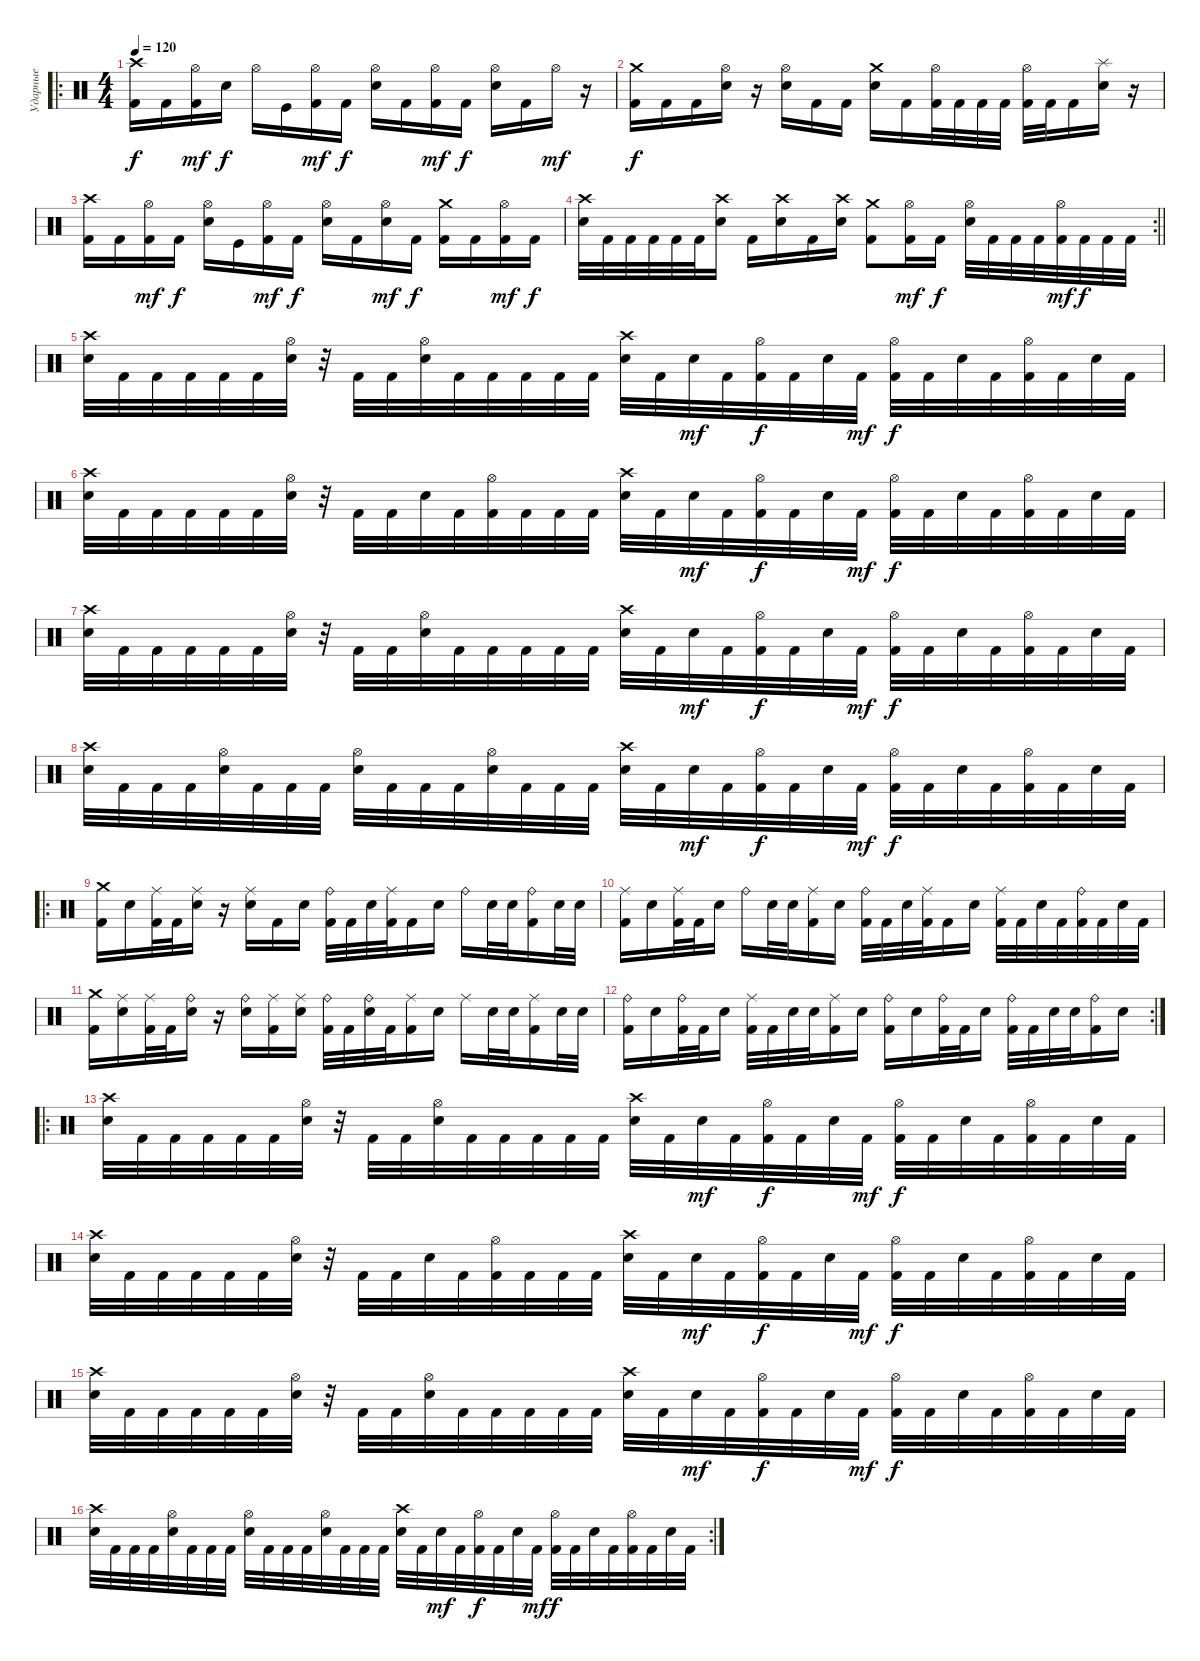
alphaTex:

\track ("Ударные" "Ударные") {instrument percussion}
\staff {score}
\articulation defaults
\ro
\ts (4 4)
\tempo 120
\clef neutral
\ks c
("Crash high (hit)" "Kick (hit) 2").16{dy f} "Kick (hit) 2".16 ("Hi-Hat (open)" "Kick (hit) 2").16{dy mf} "Electric Snare (hit)".16{dy f} "Hi-Hat (open)".16 "Kick (hit)".16 ("Hi-Hat (open)" "Kick (hit) 2").16{dy mf} "Kick (hit) 2".16{dy f} ("Hi-Hat (open)" "Electric Snare (hit)").16 "Kick (hit) 2".16 ("Hi-Hat (open)" "Kick (hit) 2").16{dy mf} "Kick (hit) 2".16{dy f} ("Hi-Hat (open)" "Electric Snare (hit)").16 "Kick (hit) 2".16 "Hi-Hat (open)".16{dy mf} r.16 |
("Crash medium (hit)" "Kick (hit) 2").16{dy f} "Kick (hit) 2".16 "Kick (hit) 2".16 ("Hi-Hat (open)" "Electric Snare (hit)").16 r.16 ("Hi-Hat (open)" "Electric Snare (hit)").16 "Kick (hit) 2".16 "Kick (hit) 2".16 ("Crash medium (hit)" "Electric Snare (hit)").16 "Kick (hit) 2".16 ("Hi-Hat (open)" "Kick (hit) 2").32 "Kick (hit) 2".32 "Kick (hit) 2".32 "Kick (hit) 2".32 ("Hi-Hat (open)" "Kick (hit) 2").32 "Kick (hit) 2".32 "Kick (hit) 2".16 ("Splash (hit)" "Electric Snare (hit)").16 r.16 |
("Crash high (hit)" "Kick (hit) 2").16 "Kick (hit) 2".16 ("Hi-Hat (open)" "Kick (hit) 2").16{dy mf} "Kick (hit) 2".16{dy f} ("Hi-Hat (open)" "Electric Snare (hit)").16 "Kick (hit)".16 ("Hi-Hat (open)" "Kick (hit) 2").16{dy mf} "Kick (hit) 2".16{dy f} ("Hi-Hat (open)" "Electric Snare (hit)").16 "Kick (hit) 2".16 ("Hi-Hat (open)" "Electric Snare (hit)").16{dy mf} "Kick (hit) 2".16{dy f} ("Crash medium (hit)" "Kick (hit) 2").16 "Kick (hit) 2".16 ("Hi-Hat (open)" "Kick (hit) 2").16{dy mf} "Kick (hit) 2".16{dy f} |
\rc 2
\barLineRight lightlight
("Crash high (hit)" "Electric Snare (hit)").32 "Kick (hit) 2".32 "Kick (hit) 2".32 "Kick (hit) 2".32 "Kick (hit) 2".32 "Kick (hit) 2".32 ("Crash high (hit)" "Electric Snare (hit)").16 "Kick (hit) 2".16 ("Crash high (hit)" "Electric Snare (hit)").16 "Kick (hit) 2".16 ("Crash high (hit)" "Electric Snare (hit)").16 ("Crash medium (hit)" "Kick (hit) 2").8 ("Hi-Hat (open)" "Kick (hit) 2").16{dy mf} "Kick (hit) 2".16{dy f} ("Hi-Hat (open)" "Electric Snare (hit)").32 "Kick (hit) 2".32 "Kick (hit) 2".32 "Kick (hit) 2".32 ("Hi-Hat (open)" "Kick (hit) 2").32{dy mf} "Kick (hit) 2".32{dy f} "Kick (hit) 2".32 "Kick (hit) 2".32 |
("Crash high (hit)" "Electric Snare (hit)").32 "Kick (hit) 2".32 "Kick (hit) 2".32 "Kick (hit) 2".32 "Kick (hit) 2".32 "Kick (hit) 2".32 ("Hi-Hat (open)" "Electric Snare (hit)").32 r.32 "Kick (hit) 2".32 "Kick (hit) 2".32 ("Hi-Hat (open)" "Electric Snare (hit)").32 "Kick (hit) 2".32 "Kick (hit) 2".32 "Kick (hit) 2".32 "Kick (hit) 2".32 "Kick (hit) 2".32 ("Crash high (hit)" "Electric Snare (hit)").32 "Kick (hit) 2".32 "Electric Snare (hit)".32{dy mf} "Kick (hit) 2".32 ("Hi-Hat (open)" "Kick (hit) 2").32{dy f} "Kick (hit) 2".32 "Electric Snare (hit)".32 "Kick (hit) 2".32{dy mf} ("Hi-Hat (open)" "Kick (hit) 2").32{dy f} "Kick (hit) 2".32 "Electric Snare (hit)".32 "Kick (hit) 2".32 ("Hi-Hat (open)" "Kick (hit) 2").32 "Kick (hit) 2".32 "Electric Snare (hit)".32 "Kick (hit) 2".32 |
("Crash high (hit)" "Electric Snare (hit)").32 "Kick (hit) 2".32 "Kick (hit) 2".32 "Kick (hit) 2".32 "Kick (hit) 2".32 "Kick (hit) 2".32 ("Hi-Hat (open)" "Electric Snare (hit)").32 r.32 "Kick (hit) 2".32 "Kick (hit) 2".32 "Electric Snare (hit)".32 "Kick (hit) 2".32 ("Hi-Hat (open)" "Kick (hit) 2").32 "Kick (hit) 2".32 "Kick (hit) 2".32 "Kick (hit) 2".32 ("Crash high (hit)" "Electric Snare (hit)").32 "Kick (hit) 2".32 "Electric Snare (hit)".32{dy mf} "Kick (hit) 2".32 ("Hi-Hat (open)" "Kick (hit) 2").32{dy f} "Kick (hit) 2".32 "Electric Snare (hit)".32 "Kick (hit) 2".32{dy mf} ("Hi-Hat (open)" "Kick (hit) 2").32{dy f} "Kick (hit) 2".32 "Electric Snare (hit)".32 "Kick (hit) 2".32 ("Hi-Hat (open)" "Kick (hit) 2").32 "Kick (hit) 2".32 "Electric Snare (hit)".32 "Kick (hit) 2".32 |
("Crash high (hit)" "Electric Snare (hit)").32 "Kick (hit) 2".32 "Kick (hit) 2".32 "Kick (hit) 2".32 "Kick (hit) 2".32 "Kick (hit) 2".32 ("Hi-Hat (open)" "Electric Snare (hit)").32 r.32 "Kick (hit) 2".32 "Kick (hit) 2".32 ("Hi-Hat (open)" "Electric Snare (hit)").32 "Kick (hit) 2".32 "Kick (hit) 2".32 "Kick (hit) 2".32 "Kick (hit) 2".32 "Kick (hit) 2".32 ("Crash high (hit)" "Electric Snare (hit)").32 "Kick (hit) 2".32 "Electric Snare (hit)".32{dy mf} "Kick (hit) 2".32 ("Hi-Hat (open)" "Kick (hit) 2").32{dy f} "Kick (hit) 2".32 "Electric Snare (hit)".32 "Kick (hit) 2".32{dy mf} ("Hi-Hat (open)" "Kick (hit) 2").32{dy f} "Kick (hit) 2".32 "Electric Snare (hit)".32 "Kick (hit) 2".32 ("Hi-Hat (open)" "Kick (hit) 2").32 "Kick (hit) 2".32 "Electric Snare (hit)".32 "Kick (hit) 2".32 |
("Crash high (hit)" "Electric Snare (hit)").32 "Kick (hit) 2".32 "Kick (hit) 2".32 "Kick (hit) 2".32 ("Hi-Hat (open)" "Electric Snare (hit)").32 "Kick (hit) 2".32 "Kick (hit) 2".32 "Kick (hit) 2".32 ("Hi-Hat (open)" "Electric Snare (hit)").32 "Kick (hit) 2".32 "Kick (hit) 2".32 "Kick (hit) 2".32 ("Hi-Hat (open)" "Electric Snare (hit)").32 "Kick (hit) 2".32 "Kick (hit) 2".32 "Kick (hit) 2".32 ("Crash high (hit)" "Electric Snare (hit)").32 "Kick (hit) 2".32 "Electric Snare (hit)".32{dy mf} "Kick (hit) 2".32 ("Hi-Hat (open)" "Kick (hit) 2").32{dy f} "Kick (hit) 2".32 "Electric Snare (hit)".32 "Kick (hit) 2".32{dy mf} ("Hi-Hat (open)" "Kick (hit) 2").32{dy f} "Kick (hit) 2".32 "Electric Snare (hit)".32 "Kick (hit) 2".32 ("Hi-Hat (open)" "Kick (hit) 2").32 "Kick (hit) 2".32 "Electric Snare (hit)".32 "Kick (hit) 2".32 |
\ro
("Crash medium (hit)" "Kick (hit) 2").16 "Electric Snare (hit)".16 ("Ride (middle)" "Kick (hit) 2").32 "Kick (hit) 2".32 ("Ride (middle)" "Electric Snare (hit)").16 r.16 ("Ride (middle)" "Electric Snare (hit)").16 "Kick (hit) 2".16 "Electric Snare (hit)".16 ("Ride (bell)" "Kick (hit) 2").32 "Kick (hit) 2".32 "Electric Snare (hit)".32 ("Ride (middle)" "Kick (hit) 2").32 "Kick (hit) 2".16 "Electric Snare (hit)".16 "Ride (bell)".16 "Electric Snare (hit)".32 "Electric Snare (hit)".32 ("Ride (bell)" "Kick (hit) 2").16 "Electric Snare (hit)".32 "Electric Snare (hit)".32 |
("Ride (middle)" "Kick (hit) 2").16 "Electric Snare (hit)".16 ("Ride (middle)" "Kick (hit) 2").32 "Kick (hit) 2".32 "Electric Snare (hit)".16 "Ride (bell)".16 "Electric Snare (hit)".32 "Electric Snare (hit)".32 ("Ride (middle)" "Kick (hit) 2").16 "Electric Snare (hit)".16 ("Ride (bell)" "Kick (hit) 2").32 "Kick (hit) 2".32 "Electric Snare (hit)".32 ("Ride (middle)" "Kick (hit) 2").32 "Kick (hit) 2".16 "Electric Snare (hit)".16 ("Ride (middle)" "Kick (hit) 2").32 "Kick (hit) 2".32 "Electric Snare (hit)".32 "Kick (hit) 2".32 ("Ride (bell)" "Kick (hit) 2").32 "Kick (hit) 2".32 "Electric Snare (hit)".32 "Kick (hit) 2".32 |
("Crash medium (hit)" "Kick (hit) 2").16 ("Ride (middle)" "Electric Snare (hit)").16 ("Ride (middle)" "Kick (hit) 2").32 "Kick (hit) 2".32 ("Ride (bell)" "Electric Snare (hit)").16 r.16 ("Ride (bell)" "Electric Snare (hit)").16 ("Ride (middle)" "Kick (hit) 2").16 ("Ride (middle)" "Electric Snare (hit)").16 ("Ride (bell)" "Kick (hit) 2").32 "Kick (hit) 2".32 ("Ride (bell)" "Electric Snare (hit)").32 "Kick (hit) 2".32 ("Ride (middle)" "Kick (hit) 2").16 "Electric Snare (hit)".16 "Ride (middle)".16 "Electric Snare (hit)".32 "Electric Snare (hit)".32 ("Ride (middle)" "Kick (hit) 2").16 "Electric Snare (hit)".32 "Electric Snare (hit)".32 |
\rc 2
("Ride (bell)" "Kick (hit) 2").16 "Electric Snare (hit)".16 ("Ride (bell)" "Kick (hit) 2").32 "Kick (hit) 2".32 "Electric Snare (hit)".16 ("Ride (middle)" "Kick (hit) 2").32 "Kick (hit) 2".32 "Electric Snare (hit)".32 "Electric Snare (hit)".32 ("Ride (middle)" "Kick (hit) 2").16 "Electric Snare (hit)".16 ("Ride (bell)" "Kick (hit) 2").16 "Electric Snare (hit)".16 ("Ride (bell)" "Kick (hit) 2").32 "Kick (hit) 2".32 "Electric Snare (hit)".16 ("Ride (bell)" "Kick (hit) 2").32 "Kick (hit) 2".32 "Electric Snare (hit)".32 "Electric Snare (hit)".32 ("Ride (bell)" "Kick (hit) 2").16 "Electric Snare (hit)".16 |
\ro
("Crash high (hit)" "Electric Snare (hit)").32 "Kick (hit) 2".32 "Kick (hit) 2".32 "Kick (hit) 2".32 "Kick (hit) 2".32 "Kick (hit) 2".32 ("Hi-Hat (open)" "Electric Snare (hit)").32 r.32 "Kick (hit) 2".32 "Kick (hit) 2".32 ("Hi-Hat (open)" "Electric Snare (hit)").32 "Kick (hit) 2".32 "Kick (hit) 2".32 "Kick (hit) 2".32 "Kick (hit) 2".32 "Kick (hit) 2".32 ("Crash high (hit)" "Electric Snare (hit)").32 "Kick (hit) 2".32 "Electric Snare (hit)".32{dy mf} "Kick (hit) 2".32 ("Hi-Hat (open)" "Kick (hit) 2").32{dy f} "Kick (hit) 2".32 "Electric Snare (hit)".32 "Kick (hit) 2".32{dy mf} ("Hi-Hat (open)" "Kick (hit) 2").32{dy f} "Kick (hit) 2".32 "Electric Snare (hit)".32 "Kick (hit) 2".32 ("Hi-Hat (open)" "Kick (hit) 2").32 "Kick (hit) 2".32 "Electric Snare (hit)".32 "Kick (hit) 2".32 |
("Crash high (hit)" "Electric Snare (hit)").32 "Kick (hit) 2".32 "Kick (hit) 2".32 "Kick (hit) 2".32 "Kick (hit) 2".32 "Kick (hit) 2".32 ("Hi-Hat (open)" "Electric Snare (hit)").32 r.32 "Kick (hit) 2".32 "Kick (hit) 2".32 "Electric Snare (hit)".32 "Kick (hit) 2".32 ("Hi-Hat (open)" "Kick (hit) 2").32 "Kick (hit) 2".32 "Kick (hit) 2".32 "Kick (hit) 2".32 ("Crash high (hit)" "Electric Snare (hit)").32 "Kick (hit) 2".32 "Electric Snare (hit)".32{dy mf} "Kick (hit) 2".32 ("Hi-Hat (open)" "Kick (hit) 2").32{dy f} "Kick (hit) 2".32 "Electric Snare (hit)".32 "Kick (hit) 2".32{dy mf} ("Hi-Hat (open)" "Kick (hit) 2").32{dy f} "Kick (hit) 2".32 "Electric Snare (hit)".32 "Kick (hit) 2".32 ("Hi-Hat (open)" "Kick (hit) 2").32 "Kick (hit) 2".32 "Electric Snare (hit)".32 "Kick (hit) 2".32 |
("Crash high (hit)" "Electric Snare (hit)").32 "Kick (hit) 2".32 "Kick (hit) 2".32 "Kick (hit) 2".32 "Kick (hit) 2".32 "Kick (hit) 2".32 ("Hi-Hat (open)" "Electric Snare (hit)").32 r.32 "Kick (hit) 2".32 "Kick (hit) 2".32 ("Hi-Hat (open)" "Electric Snare (hit)").32 "Kick (hit) 2".32 "Kick (hit) 2".32 "Kick (hit) 2".32 "Kick (hit) 2".32 "Kick (hit) 2".32 ("Crash high (hit)" "Electric Snare (hit)").32 "Kick (hit) 2".32 "Electric Snare (hit)".32{dy mf} "Kick (hit) 2".32 ("Hi-Hat (open)" "Kick (hit) 2").32{dy f} "Kick (hit) 2".32 "Electric Snare (hit)".32 "Kick (hit) 2".32{dy mf} ("Hi-Hat (open)" "Kick (hit) 2").32{dy f} "Kick (hit) 2".32 "Electric Snare (hit)".32 "Kick (hit) 2".32 ("Hi-Hat (open)" "Kick (hit) 2").32 "Kick (hit) 2".32 "Electric Snare (hit)".32 "Kick (hit) 2".32 |
\rc 2
("Crash high (hit)" "Electric Snare (hit)").32 "Kick (hit) 2".32 "Kick (hit) 2".32 "Kick (hit) 2".32 ("Hi-Hat (open)" "Electric Snare (hit)").32 "Kick (hit) 2".32 "Kick (hit) 2".32 "Kick (hit) 2".32 ("Hi-Hat (open)" "Electric Snare (hit)").32 "Kick (hit) 2".32 "Kick (hit) 2".32 "Kick (hit) 2".32 ("Hi-Hat (open)" "Electric Snare (hit)").32 "Kick (hit) 2".32 "Kick (hit) 2".32 "Kick (hit) 2".32 ("Crash high (hit)" "Electric Snare (hit)").32 "Kick (hit) 2".32 "Electric Snare (hit)".32{dy mf} "Kick (hit) 2".32 ("Hi-Hat (open)" "Kick (hit) 2").32{dy f} "Kick (hit) 2".32 "Electric Snare (hit)".32 "Kick (hit) 2".32{dy mf} ("Hi-Hat (open)" "Kick (hit) 2").32{dy f} "Kick (hit) 2".32 "Electric Snare (hit)".32 "Kick (hit) 2".32 ("Hi-Hat (open)" "Kick (hit) 2").32 "Kick (hit) 2".32 "Electric Snare (hit)".32 "Kick (hit) 2".32
